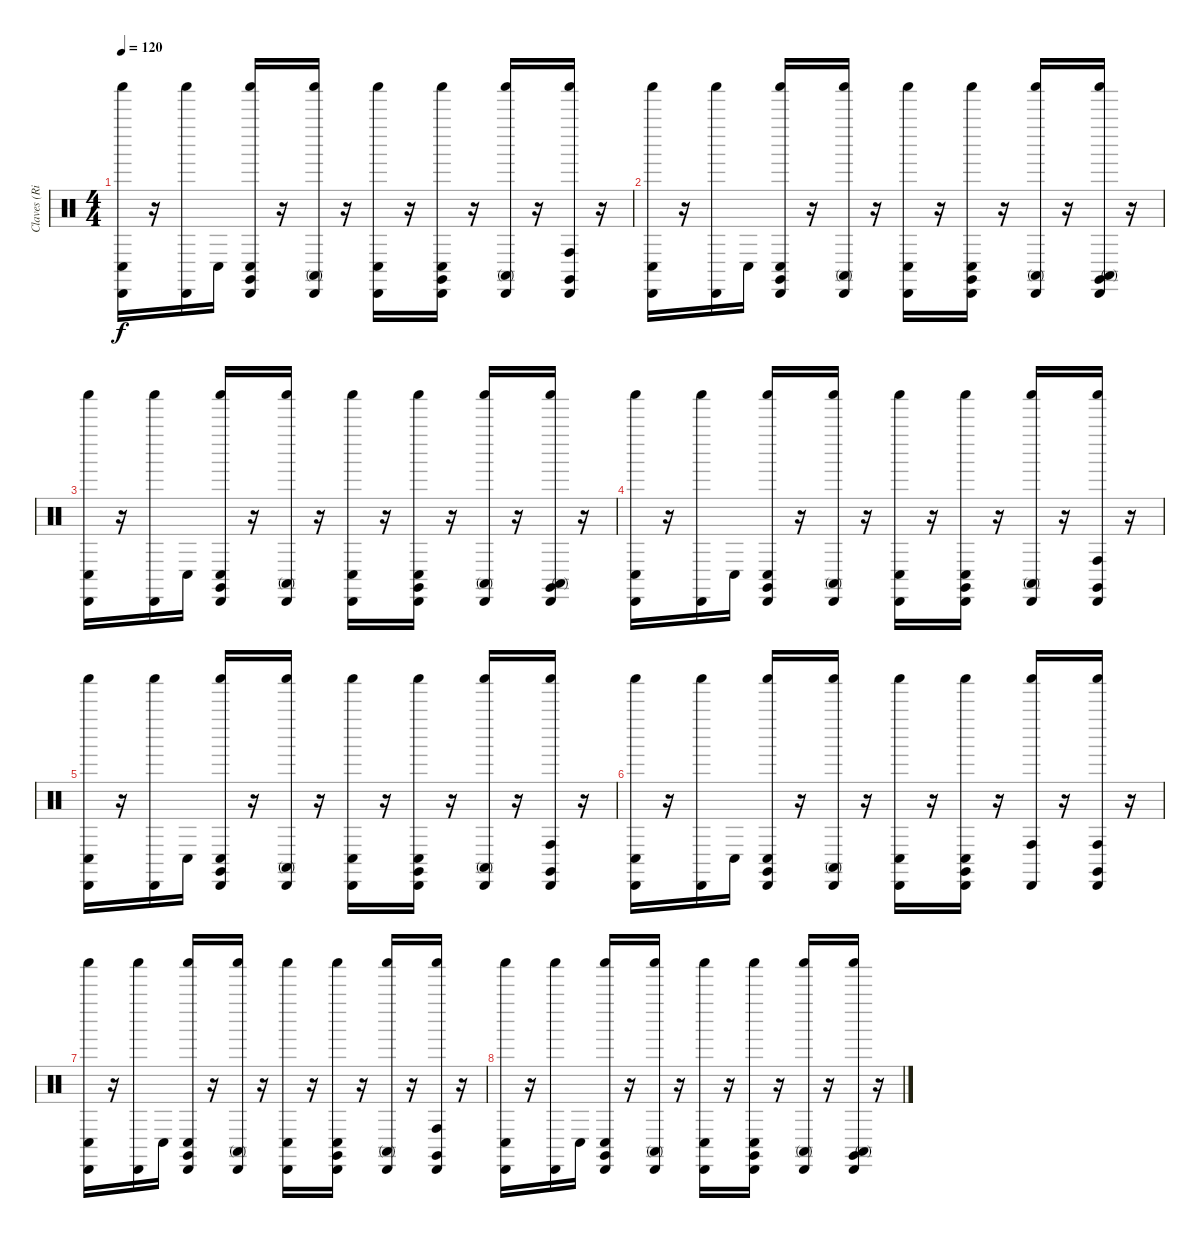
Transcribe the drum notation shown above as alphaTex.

\track ("Claves (Ringo)" "Claves (Ri") {instrument percussion}
\staff {score}
\articulation defaults
\ts (4 4)
\tempo 120
\clef neutral
\ks c
("Cabasa (hit)" "Conga low (hit)" "Shaker (hit)").16{dy f} r.16 ("Shaker (hit)" "Cabasa (hit)").16 "Conga low (hit)".16 ("Claves (hit)" "Shaker (hit)" "Cabasa (hit)" "Conga low (hit)").16 r.16 ("Conga high (mute)" "Shaker (hit)" "Cabasa (hit)").16 r.16 ("Shaker (hit)" "Conga low (hit)" "Cabasa (hit)").16 r.16 ("Shaker (hit)" "Cabasa (hit)" "Claves (hit)" "Conga low (hit)").16 r.16 ("Conga high (mute)" "Cabasa (hit)" "Shaker (hit)").16 r.16 ("Conga high (hit)" "Claves (hit)" "Cabasa (hit)" "Shaker (hit)").16 r.16 |
("Shaker (hit)" "Cabasa (hit)" "Conga low (hit)").16 r.16 ("Shaker (hit)" "Cabasa (hit)").16 "Conga low (hit)".16 ("Cabasa (hit)" "Conga low (hit)" "Shaker (hit)" "Claves (hit)").16 r.16 ("Shaker (hit)" "Conga high (mute)" "Cabasa (hit)").16 r.16 ("Shaker (hit)" "Conga low (hit)" "Cabasa (hit)").16 r.16 ("Conga low (hit)" "Claves (hit)" "Cabasa (hit)" "Shaker (hit)").16 r.16 ("Shaker (hit)" "Conga high (mute)" "Cabasa (hit)").16 r.16 ("Claves (hit)" "Shaker (hit)" "Conga high (mute)" "Cabasa (hit)").16 r.16 |
("Conga low (hit)" "Cabasa (hit)" "Shaker (hit)").16 r.16 ("Shaker (hit)" "Cabasa (hit)").16 "Conga low (hit)".16 ("Conga low (hit)" "Shaker (hit)" "Cabasa (hit)" "Claves (hit)").16 r.16 ("Shaker (hit)" "Cabasa (hit)" "Conga high (mute)").16 r.16 ("Conga low (hit)" "Cabasa (hit)" "Shaker (hit)").16 r.16 ("Claves (hit)" "Cabasa (hit)" "Shaker (hit)" "Conga low (hit)").16 r.16 ("Cabasa (hit)" "Conga high (mute)" "Shaker (hit)").16 r.16 ("Shaker (hit)" "Cabasa (hit)" "Claves (hit)" "Conga high (mute)").16 r.16 |
("Cabasa (hit)" "Shaker (hit)" "Conga low (hit)").16 r.16 ("Shaker (hit)" "Cabasa (hit)").16 "Conga low (hit)".16 ("Shaker (hit)" "Conga low (hit)" "Cabasa (hit)" "Claves (hit)").16 r.16 ("Shaker (hit)" "Conga high (mute)" "Cabasa (hit)").16 r.16 ("Conga low (hit)" "Cabasa (hit)" "Shaker (hit)").16 r.16 ("Shaker (hit)" "Claves (hit)" "Cabasa (hit)" "Conga low (hit)").16 r.16 ("Cabasa (hit)" "Shaker (hit)" "Conga high (mute)").16 r.16 ("Conga high (hit)" "Claves (hit)" "Shaker (hit)" "Cabasa (hit)").16 r.16 |
("Cabasa (hit)" "Conga low (hit)" "Shaker (hit)").16 r.16 ("Shaker (hit)" "Cabasa (hit)").16 "Conga low (hit)".16 ("Shaker (hit)" "Cabasa (hit)" "Claves (hit)" "Conga low (hit)").16 r.16 ("Cabasa (hit)" "Conga high (mute)" "Shaker (hit)").16 r.16 ("Conga low (hit)" "Shaker (hit)" "Cabasa (hit)").16 r.16 ("Conga low (hit)" "Cabasa (hit)" "Shaker (hit)" "Claves (hit)").16 r.16 ("Shaker (hit)" "Conga high (mute)" "Cabasa (hit)").16 r.16 ("Shaker (hit)" "Cabasa (hit)" "Conga high (hit)" "Claves (hit)").16 r.16 |
("Cabasa (hit)" "Shaker (hit)" "Conga low (hit)").16 r.16 ("Shaker (hit)" "Cabasa (hit)").16 "Conga low (hit)".16 ("Claves (hit)" "Cabasa (hit)" "Conga low (hit)" "Shaker (hit)").16 r.16 ("Cabasa (hit)" "Shaker (hit)" "Conga high (mute)").16 r.16 ("Shaker (hit)" "Conga low (hit)" "Cabasa (hit)").16 r.16 ("Shaker (hit)" "Conga low (hit)" "Cabasa (hit)" "Claves (hit)").16 r.16 ("Cabasa (hit)" "Shaker (hit)" "Conga high (hit)").16 r.16 ("Shaker (hit)" "Cabasa (hit)" "Claves (hit)" "Conga high (hit)").16 r.16 |
("Cabasa (hit)" "Conga low (hit)" "Shaker (hit)").16 r.16 ("Shaker (hit)" "Cabasa (hit)").16 "Conga low (hit)".16 ("Conga low (hit)" "Shaker (hit)" "Claves (hit)" "Cabasa (hit)").16 r.16 ("Conga high (mute)" "Shaker (hit)" "Cabasa (hit)").16 r.16 ("Shaker (hit)" "Conga low (hit)" "Cabasa (hit)").16 r.16 ("Shaker (hit)" "Conga low (hit)" "Cabasa (hit)" "Claves (hit)").16 r.16 ("Cabasa (hit)" "Conga high (mute)" "Shaker (hit)").16 r.16 ("Claves (hit)" "Conga high (hit)" "Cabasa (hit)" "Shaker (hit)").16 r.16 |
("Shaker (hit)" "Cabasa (hit)" "Conga low (hit)").16 r.16 ("Shaker (hit)" "Cabasa (hit)").16 "Conga low (hit)".16 ("Claves (hit)" "Conga low (hit)" "Cabasa (hit)" "Shaker (hit)").16 r.16 ("Shaker (hit)" "Conga high (mute)" "Cabasa (hit)").16 r.16 ("Shaker (hit)" "Cabasa (hit)" "Conga low (hit)").16 r.16 ("Claves (hit)" "Conga low (hit)" "Cabasa (hit)" "Shaker (hit)").16 r.16 ("Cabasa (hit)" "Shaker (hit)" "Conga high (mute)").16 r.16 ("Cabasa (hit)" "Conga high (mute)" "Shaker (hit)" "Claves (hit)").16 r.16
